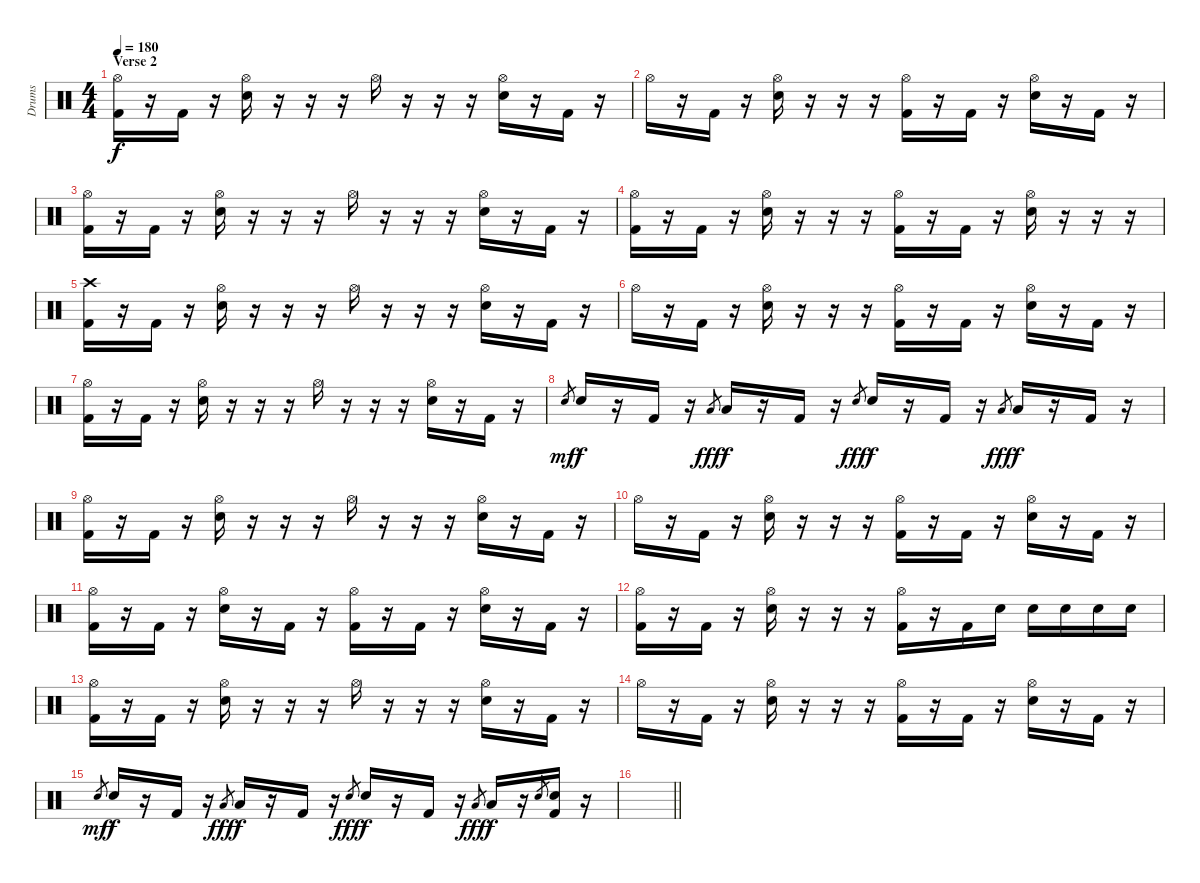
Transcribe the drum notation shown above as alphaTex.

\track ("Drums" "Drums") {instrument percussion}
\staff {score}
\articulation defaults
\ts (4 4)
\section ("" "Verse 2")
\tempo 180
\clef neutral
\ks c
("Hi-Hat (open)" "Kick (hit) 2").16{dy f} r.16 "Kick (hit) 2".16 r.16 ("Hi-Hat (open)" "Electric Snare (hit)").16 r.16 r.16 r.16 "Hi-Hat (open)".16 r.16 r.16 r.16 ("Hi-Hat (open)" "Electric Snare (hit)").16 r.16 "Kick (hit) 2".16 r.16 |
"Hi-Hat (open)".16 r.16 "Kick (hit) 2".16 r.16 ("Hi-Hat (open)" "Electric Snare (hit)").16 r.16 r.16 r.16 ("Hi-Hat (open)" "Kick (hit) 2").16 r.16 "Kick (hit) 2".16 r.16 ("Hi-Hat (open)" "Electric Snare (hit)").16 r.16 "Kick (hit) 2".16 r.16 |
("Hi-Hat (open)" "Kick (hit) 2").16 r.16 "Kick (hit) 2".16 r.16 ("Hi-Hat (open)" "Electric Snare (hit)").16 r.16 r.16 r.16 "Hi-Hat (open)".16 r.16 r.16 r.16 ("Hi-Hat (open)" "Electric Snare (hit)").16 r.16 "Kick (hit) 2".16 r.16 |
("Hi-Hat (open)" "Kick (hit) 2").16 r.16 "Kick (hit) 2".16 r.16 ("Hi-Hat (open)" "Electric Snare (hit)").16 r.16 r.16 r.16 ("Hi-Hat (open)" "Kick (hit) 2").16 r.16 "Kick (hit) 2".16 r.16 ("Hi-Hat (open)" "Electric Snare (hit)").16 r.16 r.16 r.16 |
("Crash high (hit)" "Kick (hit) 2").16 r.16 "Kick (hit) 2".16 r.16 ("Hi-Hat (open)" "Electric Snare (hit)").16 r.16 r.16 r.16 "Hi-Hat (open)".16 r.16 r.16 r.16 ("Hi-Hat (open)" "Electric Snare (hit)").16 r.16 "Kick (hit) 2".16 r.16 |
"Hi-Hat (open)".16 r.16 "Kick (hit) 2".16 r.16 ("Hi-Hat (open)" "Electric Snare (hit)").16 r.16 r.16 r.16 ("Hi-Hat (open)" "Kick (hit) 2").16 r.16 "Kick (hit) 2".16 r.16 ("Hi-Hat (open)" "Electric Snare (hit)").16 r.16 "Kick (hit) 2".16 r.16 |
("Hi-Hat (open)" "Kick (hit) 2").16 r.16 "Kick (hit) 2".16 r.16 ("Hi-Hat (open)" "Electric Snare (hit)").16 r.16 r.16 r.16 "Hi-Hat (open)".16 r.16 r.16 r.16 ("Hi-Hat (open)" "Electric Snare (hit)").16 r.16 "Kick (hit) 2".16 r.16 |
"Electric Snare (hit)"{h}.8{gr dy mf} "Electric Snare (hit)".16{dy f} r.16 "Kick (hit) 2".16 r.16 "Low Tom (hit)"{h}.8{gr dy fff} "Low Floor Tom (hit)".16{dy f} r.16 "Kick (hit) 2".16 r.16 "Electric Snare (hit)"{h}.8{gr dy fff} "Electric Snare (hit)".16{dy f} r.16 "Kick (hit) 2".16 r.16 "Low Tom (hit)"{h}.8{gr dy fff} "Low Floor Tom (hit)".16{dy f} r.16 "Kick (hit) 2".16 r.16 |
("Hi-Hat (open)" "Kick (hit) 2").16 r.16 "Kick (hit) 2".16 r.16 ("Hi-Hat (open)" "Electric Snare (hit)").16 r.16 r.16 r.16 "Hi-Hat (open)".16 r.16 r.16 r.16 ("Hi-Hat (open)" "Electric Snare (hit)").16 r.16 "Kick (hit) 2".16 r.16 |
"Hi-Hat (open)".16 r.16 "Kick (hit) 2".16 r.16 ("Hi-Hat (open)" "Electric Snare (hit)").16 r.16 r.16 r.16 ("Hi-Hat (open)" "Kick (hit) 2").16 r.16 "Kick (hit) 2".16 r.16 ("Hi-Hat (open)" "Electric Snare (hit)").16 r.16 "Kick (hit) 2".16 r.16 |
("Hi-Hat (open)" "Kick (hit) 2").16 r.16 "Kick (hit) 2".16 r.16 ("Hi-Hat (open)" "Electric Snare (hit)").16 r.16 "Kick (hit) 2".16 r.16 ("Hi-Hat (open)" "Kick (hit) 2").16 r.16 "Kick (hit) 2".16 r.16 ("Hi-Hat (open)" "Electric Snare (hit)").16 r.16 "Kick (hit) 2".16 r.16 |
("Hi-Hat (open)" "Kick (hit) 2").16 r.16 "Kick (hit) 2".16 r.16 ("Hi-Hat (open)" "Electric Snare (hit)").16 r.16 r.16 r.16 ("Hi-Hat (open)" "Kick (hit) 2").16 r.16 "Kick (hit) 2".16 "Electric Snare (hit)".16 "Electric Snare (hit)".16 "Electric Snare (hit)".16 "Electric Snare (hit)".16 "Electric Snare (hit)".16 |
("Hi-Hat (open)" "Kick (hit) 2").16 r.16 "Kick (hit) 2".16 r.16 ("Hi-Hat (open)" "Electric Snare (hit)").16 r.16 r.16 r.16 "Hi-Hat (open)".16 r.16 r.16 r.16 ("Hi-Hat (open)" "Electric Snare (hit)").16 r.16 "Kick (hit) 2".16 r.16 |
"Hi-Hat (open)".16 r.16 "Kick (hit) 2".16 r.16 ("Hi-Hat (open)" "Electric Snare (hit)").16 r.16 r.16 r.16 ("Hi-Hat (open)" "Kick (hit) 2").16 r.16 "Kick (hit) 2".16 r.16 ("Hi-Hat (open)" "Electric Snare (hit)").16 r.16 "Kick (hit) 2".16 r.16 |
"Electric Snare (hit)"{h}.8{gr dy mf} "Electric Snare (hit)".16{dy f} r.16 "Kick (hit) 2".16 r.16 "Low Tom (hit)"{h}.8{gr dy fff} "Low Floor Tom (hit)".16{dy f} r.16 "Kick (hit) 2".16 r.16 "Electric Snare (hit)"{h}.8{gr dy fff} "Electric Snare (hit)".16{dy f} r.16 "Kick (hit) 2".16 r.16 "Low Tom (hit)"{h}.8{gr dy fff} "Low Floor Tom (hit)".16{dy f} r.16 "Electric Snare (hit)".8{gr} ("Electric Snare (hit)" "Kick (hit) 2").16 r.16 |
\barLineRight lightlight
